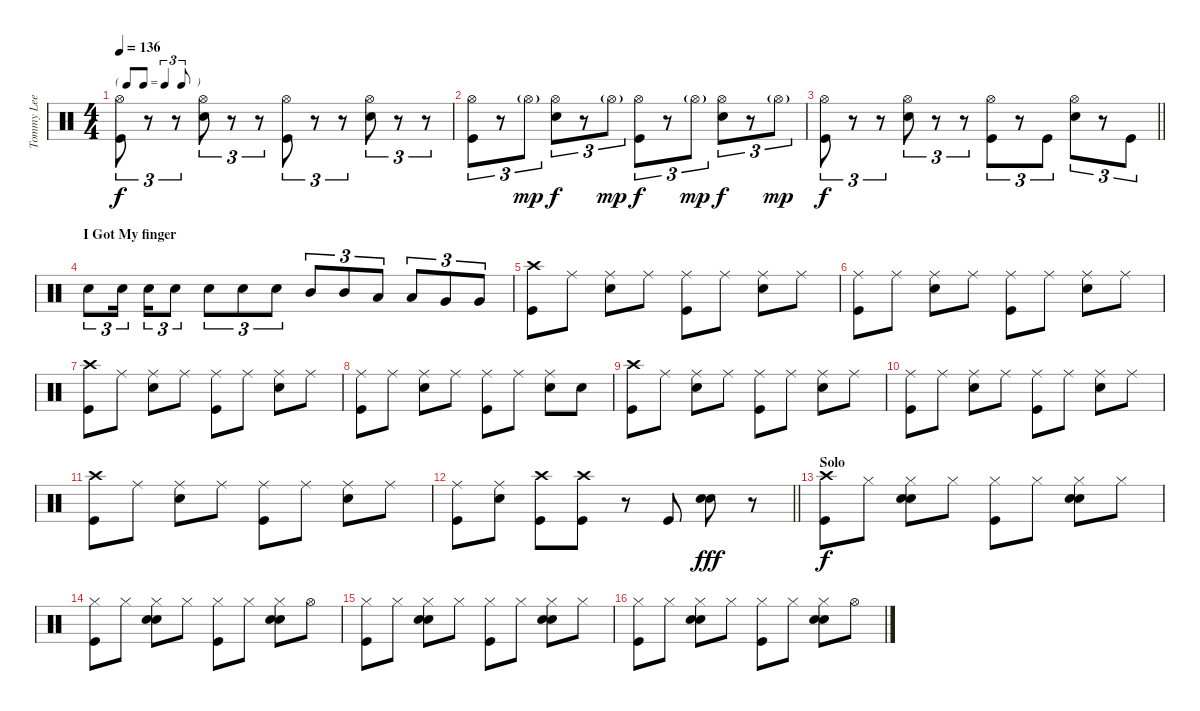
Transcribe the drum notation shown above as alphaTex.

\track ("Tommy Lee" "Tommy Lee") {instrument percussion}
\staff {score}
\articulation defaults
\ts (4 4)
\tf triplet8th
\tempo 136
\clef neutral
\ks c
("Hi-Hat (open)" "Kick (hit)").8{tu (3 2) dy f} r.8{tu (3 2)} r.8{tu (3 2)} ("Hi-Hat (open)" "Snare (hit) 2").8{tu (3 2)} r.8{tu (3 2)} r.8{tu (3 2)} ("Hi-Hat (open)" "Kick (hit)").8{tu (3 2)} r.8{tu (3 2)} r.8{tu (3 2)} ("Hi-Hat (open)" "Snare (hit) 2").8{tu (3 2)} r.8{tu (3 2)} r.8{tu (3 2)} |
("Hi-Hat (open)" "Kick (hit)").8{tu (3 2)} r.8{tu (3 2)} "Hi-Hat (open)"{g}.8{tu (3 2) dy mp} ("Hi-Hat (open)" "Snare (hit) 2").8{tu (3 2) dy f} r.8{tu (3 2)} "Hi-Hat (open)"{g}.8{tu (3 2) dy mp} ("Hi-Hat (open)" "Kick (hit)").8{tu (3 2) dy f} r.8{tu (3 2)} "Hi-Hat (open)"{g}.8{tu (3 2) dy mp} ("Hi-Hat (open)" "Snare (hit) 2").8{tu (3 2) dy f} r.8{tu (3 2)} "Hi-Hat (open)"{g}.8{tu (3 2) dy mp} |
\barLineRight lightlight
("Hi-Hat (open)" "Kick (hit)").8{tu (3 2) dy f} r.8{tu (3 2)} r.8{tu (3 2)} ("Hi-Hat (open)" "Snare (hit) 2").8{tu (3 2)} r.8{tu (3 2)} r.8{tu (3 2)} ("Hi-Hat (open)" "Kick (hit)").8{tu (3 2)} r.8{tu (3 2)} "Kick (hit)".8{tu (3 2)} ("Hi-Hat (open)" "Snare (hit) 2").8{tu (3 2)} r.8{tu (3 2)} "Kick (hit)".8{tu (3 2)} |
\section ("" "I Got My finger")
"Snare (hit) 2".8{tu (3 2)} "Snare (hit) 2".16{tu (3 2)} "Snare (hit) 2".16{tu (3 2)} "Snare (hit) 2".8{tu (3 2)} "Snare (hit) 2".8{tu (3 2)} "Snare (hit) 2".8{tu (3 2)} "Snare (hit) 2".8{tu (3 2)} "Mid Tom (hit)".8{tu (3 2)} "Mid Tom (hit)".8{tu (3 2)} "Low Tom (hit)".8{tu (3 2)} "Low Tom (hit)".8{tu (3 2)} "Very Low Tom (hit)".8{tu (3 2)} "Very Low Tom (hit)".8{tu (3 2)} |
("Crash high (hit)" "Kick (hit)").8 "Ride (middle)".8 ("Ride (middle)" "Snare (hit) 2").8 "Ride (middle)".8 ("Ride (middle)" "Kick (hit)").8 "Ride (middle)".8 ("Ride (middle)" "Snare (hit) 2").8 "Ride (middle)".8 |
("Ride (middle)" "Kick (hit)").8 "Ride (middle)".8 ("Ride (middle)" "Snare (hit) 2").8 "Ride (middle)".8 ("Ride (middle)" "Kick (hit)").8 "Ride (middle)".8 ("Ride (middle)" "Snare (hit) 2").8 "Ride (middle)".8 |
("Crash high (hit)" "Kick (hit)").8 "Ride (middle)".8 ("Ride (middle)" "Snare (hit) 2").8 "Ride (middle)".8 ("Ride (middle)" "Kick (hit)").8 "Ride (middle)".8 ("Ride (middle)" "Snare (hit) 2").8 "Ride (middle)".8 |
("Ride (middle)" "Kick (hit)").8 "Ride (middle)".8 ("Ride (middle)" "Snare (hit) 2").8 "Ride (middle)".8 ("Ride (middle)" "Kick (hit)").8 "Ride (middle)".8 ("Ride (middle)" "Snare (hit) 2").8 "Snare (hit) 2".8 |
("Crash high (hit)" "Kick (hit)").8 "Ride (middle)".8 ("Ride (middle)" "Snare (hit) 2").8 "Ride (middle)".8 ("Ride (middle)" "Kick (hit)").8 "Ride (middle)".8 ("Ride (middle)" "Snare (hit) 2").8 "Ride (middle)".8 |
("Ride (middle)" "Kick (hit)").8 "Ride (middle)".8 ("Ride (middle)" "Snare (hit) 2").8 "Ride (middle)".8 ("Ride (middle)" "Kick (hit)").8 "Ride (middle)".8 ("Ride (middle)" "Snare (hit) 2").8 "Ride (middle)".8 |
("Crash high (hit)" "Kick (hit)").8 "Ride (middle)".8 ("Ride (middle)" "Snare (hit) 2").8 "Ride (middle)".8 ("Ride (middle)" "Kick (hit)").8 "Ride (middle)".8 ("Ride (middle)" "Snare (hit) 2").8 "Ride (middle)".8 |
\barLineRight lightlight
("Ride (middle)" "Kick (hit)").8 ("Ride (middle)" "Snare (hit) 2").8 ("Crash high (hit)" "Kick (hit)").8 ("Crash high (hit)" "Kick (hit)").8 r.8 "Kick (hit)".8 ("Snare (hit) 2" "Snare (hit) 2").8{dy fff} r.8 |
\section ("" "Solo")
("Crash high (hit)" "Kick (hit)").8{dy f} "Hi-Hat (closed)".8 ("Hi-Hat (closed)" "Hand Clap (hit)" "Snare (hit) 2").8 "Hi-Hat (closed)".8 ("Hi-Hat (closed)" "Kick (hit)").8 "Hi-Hat (closed)".8 ("Hi-Hat (closed)" "Hand Clap (hit)" "Snare (hit) 2").8 "Hi-Hat (closed)".8 |
("Hi-Hat (closed)" "Kick (hit)").8 "Hi-Hat (closed)".8 ("Hi-Hat (closed)" "Hand Clap (hit)" "Snare (hit) 2").8 "Hi-Hat (closed)".8 ("Hi-Hat (closed)" "Kick (hit)").8 "Hi-Hat (closed)".8 ("Hi-Hat (closed)" "Hand Clap (hit)" "Snare (hit) 2").8 "Hi-Hat (open)".8 |
("Hi-Hat (closed)" "Kick (hit)").8 "Hi-Hat (closed)".8 ("Hi-Hat (closed)" "Hand Clap (hit)" "Snare (hit) 2").8 "Hi-Hat (closed)".8 ("Hi-Hat (closed)" "Kick (hit)").8 "Hi-Hat (closed)".8 ("Hi-Hat (closed)" "Hand Clap (hit)" "Snare (hit) 2").8 "Hi-Hat (closed)".8 |
("Hi-Hat (closed)" "Kick (hit)").8 "Hi-Hat (closed)".8 ("Hi-Hat (closed)" "Hand Clap (hit)" "Snare (hit) 2").8 "Hi-Hat (closed)".8 ("Hi-Hat (closed)" "Kick (hit)").8 "Hi-Hat (closed)".8 ("Hi-Hat (closed)" "Hand Clap (hit)" "Snare (hit) 2").8 "Hi-Hat (open)".8
